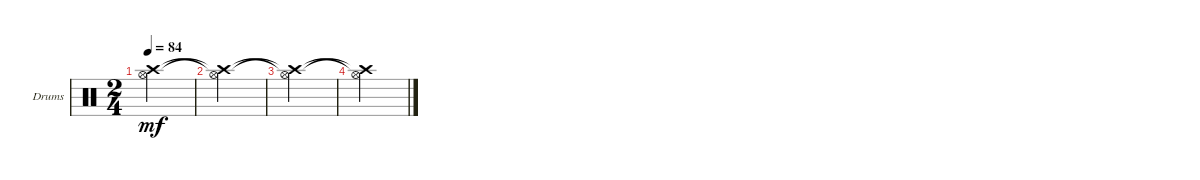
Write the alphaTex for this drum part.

\bracketExtendMode groupsimilarinstruments
\firstSystemTrackNameOrientation horizontal
\otherSystemsTrackNameOrientation horizontal
\track ("Drumkit" "Drums") {instrument percussion}
\staff {score}
\articulation defaults
\ts (2 4)
\tempo 84
\clef neutral
\scale
0.333333
\ks c
("Hi-Hat (open)"{t} "Crash high (hit)"{t}).2{dy mf} |
\scale
0.333333 ("Crash high (hit)"{t} "Hi-Hat (open)"{t}).2 |
\scale
0.333333 ("Hi-Hat (open)"{t} "Crash high (hit)"{t}).2 |
("Crash high (hit)"{t} "Hi-Hat (open)"{t}).2
